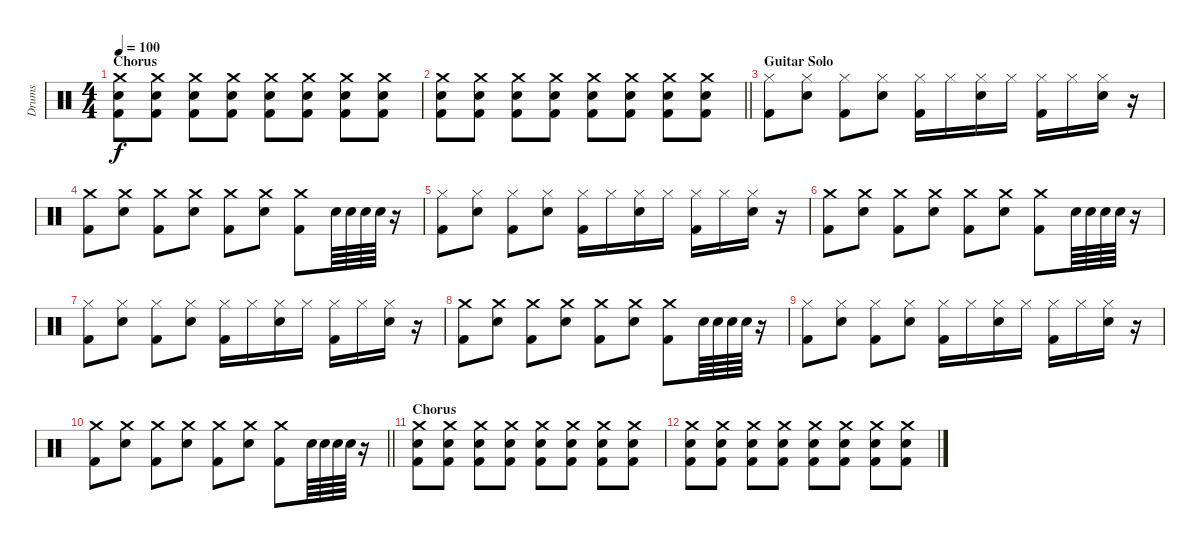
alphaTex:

\track ("Drums" "Drums") {instrument percussion}
\staff {score}
\articulation defaults
\ts (4 4)
\section ("" "Chorus")
\tempo 100
\clef neutral
\ks c
("Kick (hit) 2" "Electric Snare (hit)" "Crash medium (hit)").8{dy f} ("Kick (hit) 2" "Electric Snare (hit)" "Crash medium (hit)").8 ("Kick (hit) 2" "Electric Snare (hit)" "Crash medium (hit)").8 ("Kick (hit) 2" "Electric Snare (hit)" "Crash medium (hit)").8 ("Kick (hit) 2" "Electric Snare (hit)" "Crash medium (hit)").8 ("Kick (hit) 2" "Electric Snare (hit)" "Crash medium (hit)").8 ("Kick (hit) 2" "Electric Snare (hit)" "Crash medium (hit)").8 ("Kick (hit) 2" "Electric Snare (hit)" "Crash medium (hit)").8 |
\barLineRight lightlight
("Kick (hit) 2" "Electric Snare (hit)" "Crash medium (hit)").8 ("Kick (hit) 2" "Electric Snare (hit)" "Crash medium (hit)").8 ("Kick (hit) 2" "Electric Snare (hit)" "Crash medium (hit)").8 ("Kick (hit) 2" "Electric Snare (hit)" "Crash medium (hit)").8 ("Kick (hit) 2" "Electric Snare (hit)" "Crash medium (hit)").8 ("Kick (hit) 2" "Electric Snare (hit)" "Crash medium (hit)").8 ("Kick (hit) 2" "Electric Snare (hit)" "Crash medium (hit)").8 ("Kick (hit) 2" "Electric Snare (hit)" "Crash medium (hit)").8 |
\section ("" "Guitar Solo")
("Kick (hit) 2" "Hi-Hat (closed)").8 ("Electric Snare (hit)" "Hi-Hat (closed)").8 ("Kick (hit) 2" "Hi-Hat (closed)").8 ("Electric Snare (hit)" "Hi-Hat (closed)").8 ("Kick (hit) 2" "Hi-Hat (closed)").16 "Hi-Hat (closed)".16 ("Electric Snare (hit)" "Hi-Hat (closed)").16 "Hi-Hat (closed)".16 ("Kick (hit) 2" "Hi-Hat (closed)").16 "Hi-Hat (closed)".16 ("Electric Snare (hit)" "Hi-Hat (closed)").16 r.16 |
("Kick (hit) 2" "Crash medium (hit)").8 ("Electric Snare (hit)" "Crash medium (hit)").8 ("Kick (hit) 2" "Crash medium (hit)").8 ("Electric Snare (hit)" "Crash medium (hit)").8 ("Kick (hit) 2" "Crash medium (hit)").8 ("Electric Snare (hit)" "Crash medium (hit)").8 ("Kick (hit) 2" "Crash medium (hit)").8 "Electric Snare (hit)".64 "Electric Snare (hit)".64 "Electric Snare (hit)".64 "Electric Snare (hit)".64 r.16 |
("Kick (hit) 2" "Hi-Hat (closed)").8 ("Electric Snare (hit)" "Hi-Hat (closed)").8 ("Kick (hit) 2" "Hi-Hat (closed)").8 ("Electric Snare (hit)" "Hi-Hat (closed)").8 ("Kick (hit) 2" "Hi-Hat (closed)").16 "Hi-Hat (closed)".16 ("Electric Snare (hit)" "Hi-Hat (closed)").16 "Hi-Hat (closed)".16 ("Kick (hit) 2" "Hi-Hat (closed)").16 "Hi-Hat (closed)".16 ("Electric Snare (hit)" "Hi-Hat (closed)").16 r.16 |
("Kick (hit) 2" "Crash medium (hit)").8 ("Electric Snare (hit)" "Crash medium (hit)").8 ("Kick (hit) 2" "Crash medium (hit)").8 ("Electric Snare (hit)" "Crash medium (hit)").8 ("Kick (hit) 2" "Crash medium (hit)").8 ("Electric Snare (hit)" "Crash medium (hit)").8 ("Kick (hit) 2" "Crash medium (hit)").8 "Electric Snare (hit)".64 "Electric Snare (hit)".64 "Electric Snare (hit)".64 "Electric Snare (hit)".64 r.16 |
("Kick (hit) 2" "Hi-Hat (closed)").8 ("Electric Snare (hit)" "Hi-Hat (closed)").8 ("Kick (hit) 2" "Hi-Hat (closed)").8 ("Electric Snare (hit)" "Hi-Hat (closed)").8 ("Kick (hit) 2" "Hi-Hat (closed)").16 "Hi-Hat (closed)".16 ("Electric Snare (hit)" "Hi-Hat (closed)").16 "Hi-Hat (closed)".16 ("Kick (hit) 2" "Hi-Hat (closed)").16 "Hi-Hat (closed)".16 ("Electric Snare (hit)" "Hi-Hat (closed)").16 r.16 |
("Kick (hit) 2" "Crash medium (hit)").8 ("Electric Snare (hit)" "Crash medium (hit)").8 ("Kick (hit) 2" "Crash medium (hit)").8 ("Electric Snare (hit)" "Crash medium (hit)").8 ("Kick (hit) 2" "Crash medium (hit)").8 ("Electric Snare (hit)" "Crash medium (hit)").8 ("Kick (hit) 2" "Crash medium (hit)").8 "Electric Snare (hit)".64 "Electric Snare (hit)".64 "Electric Snare (hit)".64 "Electric Snare (hit)".64 r.16 |
("Kick (hit) 2" "Hi-Hat (closed)").8 ("Electric Snare (hit)" "Hi-Hat (closed)").8 ("Kick (hit) 2" "Hi-Hat (closed)").8 ("Electric Snare (hit)" "Hi-Hat (closed)").8 ("Kick (hit) 2" "Hi-Hat (closed)").16 "Hi-Hat (closed)".16 ("Electric Snare (hit)" "Hi-Hat (closed)").16 "Hi-Hat (closed)".16 ("Kick (hit) 2" "Hi-Hat (closed)").16 "Hi-Hat (closed)".16 ("Electric Snare (hit)" "Hi-Hat (closed)").16 r.16 |
\barLineRight lightlight
("Kick (hit) 2" "Crash medium (hit)").8 ("Electric Snare (hit)" "Crash medium (hit)").8 ("Kick (hit) 2" "Crash medium (hit)").8 ("Electric Snare (hit)" "Crash medium (hit)").8 ("Kick (hit) 2" "Crash medium (hit)").8 ("Electric Snare (hit)" "Crash medium (hit)").8 ("Kick (hit) 2" "Crash medium (hit)").8 "Electric Snare (hit)".64 "Electric Snare (hit)".64 "Electric Snare (hit)".64 "Electric Snare (hit)".64 r.16 |
\section ("" "Chorus")
("Kick (hit) 2" "Electric Snare (hit)" "Crash medium (hit)").8 ("Kick (hit) 2" "Electric Snare (hit)" "Crash medium (hit)").8 ("Kick (hit) 2" "Electric Snare (hit)" "Crash medium (hit)").8 ("Kick (hit) 2" "Electric Snare (hit)" "Crash medium (hit)").8 ("Kick (hit) 2" "Electric Snare (hit)" "Crash medium (hit)").8 ("Kick (hit) 2" "Electric Snare (hit)" "Crash medium (hit)").8 ("Kick (hit) 2" "Electric Snare (hit)" "Crash medium (hit)").8 ("Kick (hit) 2" "Electric Snare (hit)" "Crash medium (hit)").8 |
("Kick (hit) 2" "Electric Snare (hit)" "Crash medium (hit)").8 ("Kick (hit) 2" "Electric Snare (hit)" "Crash medium (hit)").8 ("Kick (hit) 2" "Electric Snare (hit)" "Crash medium (hit)").8 ("Kick (hit) 2" "Electric Snare (hit)" "Crash medium (hit)").8 ("Kick (hit) 2" "Electric Snare (hit)" "Crash medium (hit)").8 ("Kick (hit) 2" "Electric Snare (hit)" "Crash medium (hit)").8 ("Kick (hit) 2" "Electric Snare (hit)" "Crash medium (hit)").8 ("Kick (hit) 2" "Electric Snare (hit)" "Crash medium (hit)").8
